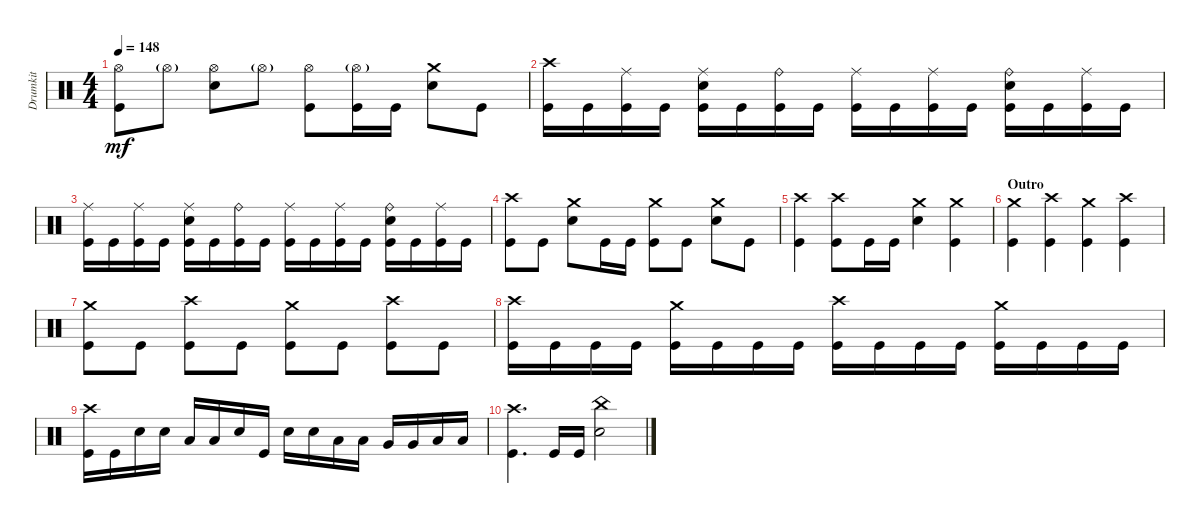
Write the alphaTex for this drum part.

\track ("Drumkit" "Drumkit") {instrument percussion}
\staff {score}
\articulation defaults
\ts (4 4)
\tempo 148
\clef neutral
\ks c
("Kick (hit)" "Hi-Hat (open)").8{dy mf} "Hi-Hat (open)"{g}.8 ("Hi-Hat (open)" "Snare (hit) 2").8 "Hi-Hat (open)"{g}.8 ("Hi-Hat (open)" "Kick (hit)").8 ("Hi-Hat (open)"{g} "Kick (hit)").16 "Kick (hit)".16 ("Snare (hit) 2" "Crash medium (hit)").8 "Kick (hit)".8 |
("Kick (hit)" "Crash high (hit)").16 "Kick (hit)".16 ("Kick (hit)" "Ride (middle)").16 "Kick (hit)".16 ("Kick (hit)" "Ride (middle)" "Snare (hit) 2").16 "Kick (hit)".16 ("Kick (hit)" "Ride (bell)").16 "Kick (hit)".16 ("Kick (hit)" "Ride (middle)").16 "Kick (hit)".16 ("Kick (hit)" "Ride (middle)").16 "Kick (hit)".16 ("Kick (hit)" "Ride (bell)" "Snare (hit) 2").16 "Kick (hit)".16 ("Kick (hit)" "Ride (middle)").16 "Kick (hit)".16 |
("Kick (hit)" "Ride (middle)").16 "Kick (hit)".16 ("Kick (hit)" "Ride (middle)").16 "Kick (hit)".16 ("Kick (hit)" "Ride (middle)" "Snare (hit) 2").16 "Kick (hit)".16 ("Kick (hit)" "Ride (bell)").16 "Kick (hit)".16 ("Kick (hit)" "Ride (middle)").16 "Kick (hit)".16 ("Kick (hit)" "Ride (middle)").16 "Kick (hit)".16 ("Kick (hit)" "Ride (bell)" "Snare (hit) 2").16 "Kick (hit)".16 ("Kick (hit)" "Ride (middle)").16 "Kick (hit)".16 |
("Kick (hit)" "Crash high (hit)").8 "Kick (hit)".8 ("Snare (hit) 2" "Crash medium (hit)").8 "Kick (hit)".16 "Kick (hit)".16 ("Kick (hit)" "Crash medium (hit)").8 "Kick (hit)".8 ("Snare (hit) 2" "Crash medium (hit)").8 "Kick (hit)".8 |
("Kick (hit)" "Crash high (hit)").4 ("Kick (hit)" "Crash high (hit)").8 "Kick (hit)".16 "Kick (hit)".16 ("Snare (hit) 2" "Crash medium (hit)").4 ("Kick (hit)" "Crash medium (hit)").4 |
\section ("" "Outro")
("Kick (hit)" "Crash medium (hit)").4 ("Kick (hit)" "Crash high (hit)").4 ("Kick (hit)" "Crash medium (hit)").4 ("Kick (hit)" "Crash high (hit)").4 |
("Kick (hit)" "Crash medium (hit)").8 "Kick (hit)".8 ("Kick (hit)" "Crash high (hit)").8 "Kick (hit)".8 ("Kick (hit)" "Crash medium (hit)").8 "Kick (hit)".8 ("Kick (hit)" "Crash high (hit)").8 "Kick (hit)".8 |
("Kick (hit)" "Crash high (hit)").16 "Kick (hit)".16 "Kick (hit)".16 "Kick (hit)".16 ("Kick (hit)" "Crash medium (hit)").16 "Kick (hit)".16 "Kick (hit)".16 "Kick (hit)".16 ("Kick (hit)" "Crash high (hit)").16 "Kick (hit)".16 "Kick (hit)".16 "Kick (hit)".16 ("Kick (hit)" "Crash medium (hit)").16 "Kick (hit)".16 "Kick (hit)".16 "Kick (hit)".16 |
("Kick (hit)" "Crash high (hit)").16 "Kick (hit)".16 "Snare (hit) 2".16 "Snare (hit) 2".16 "Low Tom (hit)".16 "Low Tom (hit)".16 "Snare (hit) 2".16 "Kick (hit)".16 "Snare (hit) 2".16 "Snare (hit) 2".16 "Low Tom (hit)".16 "Low Tom (hit)".16 "Very Low Tom (hit)".16 "Very Low Tom (hit)".16 "Low Floor Tom (hit)".16 "Low Floor Tom (hit)".16 |
("Kick (hit)" "Crash high (hit)").4{d} "Kick (hit)".16 "Kick (hit)".16 ("Snare (hit) 2" "China (hit)").2
